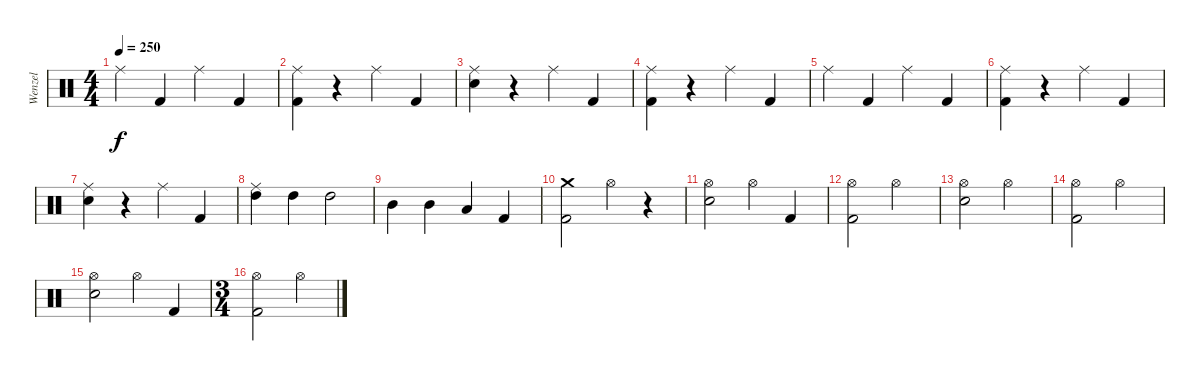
\track ("Wenzel" "Wenzel") {instrument percussion}
\staff {score}
\articulation defaults
\ts (4 4)
\tempo 250
\clef neutral
\ks c "Ride (middle)".4{dy f} "Kick (hit) 2".4 "Ride (middle)".4 "Kick (hit) 2".4
|
("Ride (middle)" "Kick (hit) 2").4 r.4 "Ride (middle)".4 "Kick (hit) 2".4 |
("Ride (middle)" "Snare (hit) 2").4 r.4 "Ride (middle)".4 "Kick (hit) 2".4 |
("Ride (middle)" "Kick (hit) 2").4 r.4 "Ride (middle)".4 "Kick (hit) 2".4 |
"Ride (middle)".4 "Kick (hit) 2".4 "Ride (middle)".4 "Kick (hit) 2".4 |
("Ride (middle)" "Kick (hit) 2").4 r.4 "Ride (middle)".4 "Kick (hit) 2".4 |
("Ride (middle)" "Snare (hit) 2").4 r.4 "Ride (middle)".4 "Kick (hit) 2".4 |
("High Tom (hit)" "Ride (middle)").4 "High Tom (hit)".4 "High Tom (hit)".2 |
"Mid Tom (hit)".4 "Mid Tom (hit)".4 "Low Tom (hit)".4 "Kick (hit) 2".4 |
("Crash medium (hit)" "Kick (hit) 2").2 "Hi-Hat (open)".4 r.4 |
("Hi-Hat (open)" "Snare (hit) 2").2 "Hi-Hat (open)".4 "Kick (hit) 2".4 |
("Hi-Hat (open)" "Kick (hit) 2").2 "Hi-Hat (open)".2 |
("Hi-Hat (open)" "Snare (hit) 2").2 "Hi-Hat (open)".2 |
("Hi-Hat (open)" "Kick (hit) 2").2 "Hi-Hat (open)".2 |
("Hi-Hat (open)" "Snare (hit) 2").2 "Hi-Hat (open)".4 "Kick (hit) 2".4 |
\ts (3 4)
("Hi-Hat (open)" "Kick (hit) 2").2 "Hi-Hat (open)".4
